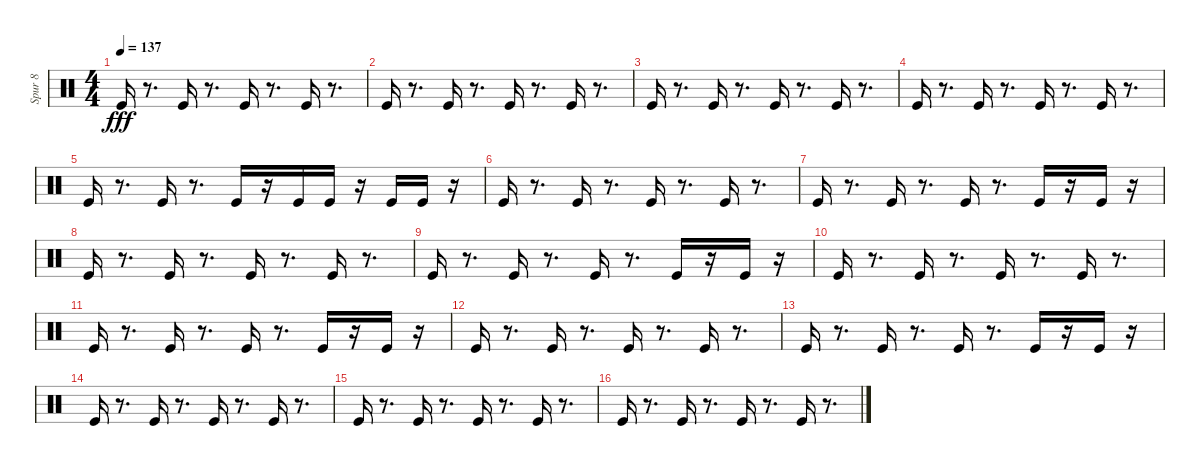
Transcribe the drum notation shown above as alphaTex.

\track ("Spur 8" "Spur 8") {instrument percussion}
\staff {score}
\articulation defaults
\ts (4 4)
\tempo 137
\clef neutral
\ks c "Kick (hit)".16{dy fff}
r.8{d} "Kick (hit)".16 r.8{d} "Kick (hit)".16 r.8{d} "Kick (hit)".16 r.8{d} |
"Kick (hit)".16 r.8{d} "Kick (hit)".16 r.8{d} "Kick (hit)".16 r.8{d} "Kick (hit)".16 r.8{d} |
"Kick (hit)".16 r.8{d} "Kick (hit)".16 r.8{d} "Kick (hit)".16 r.8{d} "Kick (hit)".16 r.8{d} |
"Kick (hit)".16 r.8{d} "Kick (hit)".16 r.8{d} "Kick (hit)".16 r.8{d} "Kick (hit)".16 r.8{d} |
"Kick (hit)".16 r.8{d} "Kick (hit)".16 r.8{d} "Kick (hit)".16 r.16 "Kick (hit)".16 "Kick (hit)".16 r.16 "Kick (hit)".16 "Kick (hit)".16 r.16 |
"Kick (hit)".16 r.8{d} "Kick (hit)".16 r.8{d} "Kick (hit)".16 r.8{d} "Kick (hit)".16 r.8{d} |
"Kick (hit)".16 r.8{d} "Kick (hit)".16 r.8{d} "Kick (hit)".16 r.8{d} "Kick (hit)".16 r.16 "Kick (hit)".16 r.16 |
"Kick (hit)".16 r.8{d} "Kick (hit)".16 r.8{d} "Kick (hit)".16 r.8{d} "Kick (hit)".16 r.8{d} |
"Kick (hit)".16 r.8{d} "Kick (hit)".16 r.8{d} "Kick (hit)".16 r.8{d} "Kick (hit)".16 r.16 "Kick (hit)".16 r.16 |
"Kick (hit)".16 r.8{d} "Kick (hit)".16 r.8{d} "Kick (hit)".16 r.8{d} "Kick (hit)".16 r.8{d} |
"Kick (hit)".16 r.8{d} "Kick (hit)".16 r.8{d} "Kick (hit)".16 r.8{d} "Kick (hit)".16 r.16 "Kick (hit)".16 r.16 |
"Kick (hit)".16 r.8{d} "Kick (hit)".16 r.8{d} "Kick (hit)".16 r.8{d} "Kick (hit)".16 r.8{d} |
"Kick (hit)".16 r.8{d} "Kick (hit)".16 r.8{d} "Kick (hit)".16 r.8{d} "Kick (hit)".16 r.16 "Kick (hit)".16 r.16 |
"Kick (hit)".16 r.8{d} "Kick (hit)".16 r.8{d} "Kick (hit)".16 r.8{d} "Kick (hit)".16 r.8{d} |
"Kick (hit)".16 r.8{d} "Kick (hit)".16 r.8{d} "Kick (hit)".16 r.8{d} "Kick (hit)".16 r.8{d} |
"Kick (hit)".16 r.8{d} "Kick (hit)".16 r.8{d} "Kick (hit)".16 r.8{d} "Kick (hit)".16 r.8{d}
